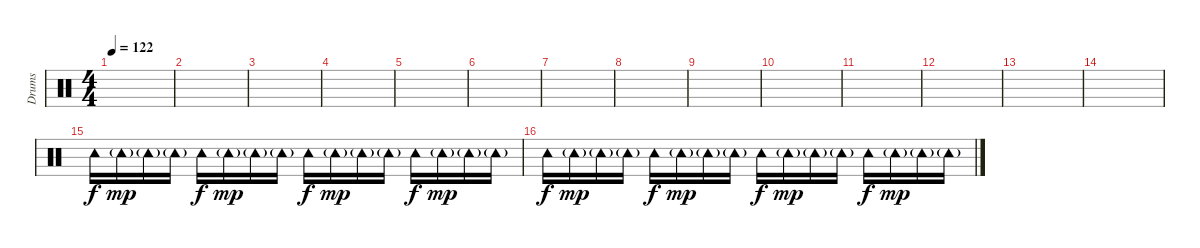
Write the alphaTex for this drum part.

\track ("Drums" "Drums") {instrument percussion}
\staff {score}
\articulation defaults
\ts (4 4)
\tempo 122
\clef neutral
\ks c
|
|
|
|
|
|
|
|
|
|
|
|
|
|
"Tambourine (hit)".16 "Tambourine (hit)"{g}.16{dy mp} "Tambourine (hit)"{g}.16 "Tambourine (hit)"{g}.16 "Tambourine (hit)".16{dy f} "Tambourine (hit)"{g}.16{dy mp} "Tambourine (hit)"{g}.16 "Tambourine (hit)"{g}.16 "Tambourine (hit)".16{dy f} "Tambourine (hit)"{g}.16{dy mp} "Tambourine (hit)"{g}.16 "Tambourine (hit)"{g}.16 "Tambourine (hit)".16{dy f} "Tambourine (hit)"{g}.16{dy mp} "Tambourine (hit)"{g}.16 "Tambourine (hit)"{g}.16 |
"Tambourine (hit)".16{dy f} "Tambourine (hit)"{g}.16{dy mp} "Tambourine (hit)"{g}.16 "Tambourine (hit)"{g}.16 "Tambourine (hit)".16{dy f} "Tambourine (hit)"{g}.16{dy mp} "Tambourine (hit)"{g}.16 "Tambourine (hit)"{g}.16 "Tambourine (hit)".16{dy f} "Tambourine (hit)"{g}.16{dy mp} "Tambourine (hit)"{g}.16 "Tambourine (hit)"{g}.16 "Tambourine (hit)".16{dy f} "Tambourine (hit)"{g}.16{dy mp} "Tambourine (hit)"{g}.16 "Tambourine (hit)"{g}.16
